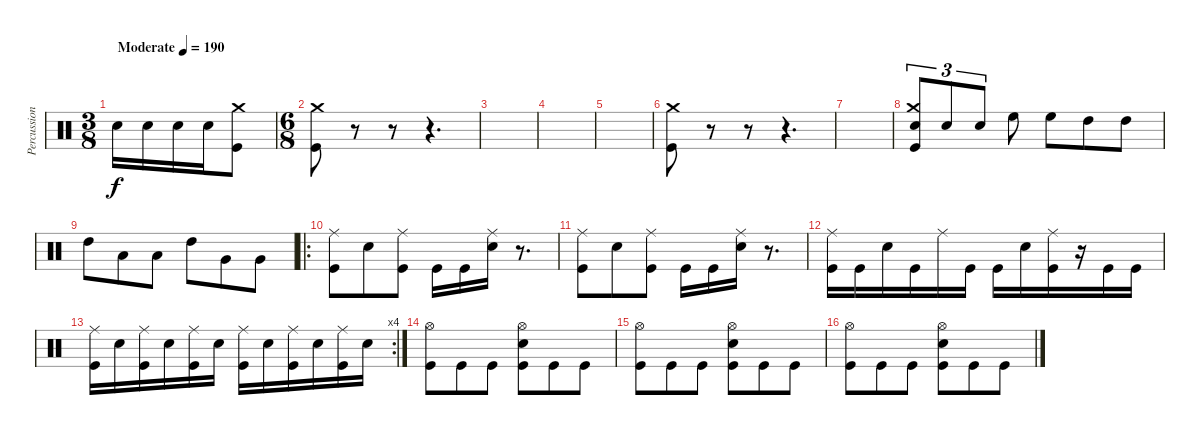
\track ("Percussion" "Percussion") {instrument percussion}
\staff {score}
\articulation defaults
\ts (3 8)
\tempo (190 "Moderate")
\clef neutral
\ks c "Snare (hit) 2".16{dy f} "Snare (hit) 2".16 "Snare (hit) 2".16 "Snare (hit) 2".16
("Crash medium (hit)" "Kick (hit)").8 |
\ts (6 8)
("Crash medium (hit)" "Kick (hit)").8 r.8 r.8 r.4{d} |
|
|
|
("Crash medium (hit)" "Kick (hit)").8 r.8 r.8 r.4{d} |
|
("Crash medium (hit)" "Snare (hit) 2" "Kick (hit)").8{tu (3 2)} "Snare (hit) 2".8{tu (3 2)} "Snare (hit) 2".8{tu (3 2)} "High Floor Tom (hit)".8 "High Floor Tom (hit)".8 "High Tom (hit)".8 "High Tom (hit)".8 |
"High Tom (hit)".8 "Low Tom (hit)".8 "Low Tom (hit)".8 "High Tom (hit)".8 "Very Low Tom (hit)".8 "Very Low Tom (hit)".8 |
\ro
("Ride (middle)" "Kick (hit)").8 "Snare (hit) 2".8 ("Ride (middle)" "Kick (hit)").8 "Kick (hit)".16 "Kick (hit)".16 ("Ride (middle)" "Snare (hit) 2").16 r.8{d} |
("Ride (middle)" "Kick (hit)").8 "Snare (hit) 2".8 ("Ride (middle)" "Kick (hit)").8 "Kick (hit)".16 "Kick (hit)".16 ("Ride (middle)" "Snare (hit) 2").16 r.8{d} |
("Ride (middle)" "Kick (hit)").16 "Kick (hit)".16 "Snare (hit) 2".16 "Kick (hit)".16 "Ride (middle)".16 "Kick (hit)".16 "Kick (hit)".16 "Snare (hit) 2".16 ("Ride (middle)" "Kick (hit)").16 r.16 "Kick (hit)".16 "Kick (hit)".16 |
\rc 4
("Ride (middle)" "Kick (hit)").16 "Snare (hit) 2".16 ("Ride (middle)" "Kick (hit)").16 "Snare (hit) 2".16 ("Ride (middle)" "Kick (hit)").16 "Snare (hit) 2".16 ("Ride (middle)" "Kick (hit)").16 "Snare (hit) 2".16 ("Ride (middle)" "Kick (hit)").16 "Snare (hit) 2".16 ("Ride (middle)" "Kick (hit)").16 "Snare (hit) 2".16 |
("Hi-Hat (open)" "Kick (hit)").8 "Kick (hit)".8 "Kick (hit)".8 ("Hi-Hat (open)" "Snare (hit) 2" "Kick (hit)").8 "Kick (hit)".8 "Kick (hit)".8 |
("Hi-Hat (open)" "Kick (hit)").8 "Kick (hit)".8 "Kick (hit)".8 ("Hi-Hat (open)" "Snare (hit) 2" "Kick (hit)").8 "Kick (hit)".8 "Kick (hit)".8 |
("Hi-Hat (open)" "Kick (hit)").8 "Kick (hit)".8 "Kick (hit)".8 ("Hi-Hat (open)" "Snare (hit) 2" "Kick (hit)").8 "Kick (hit)".8 "Kick (hit)".8
